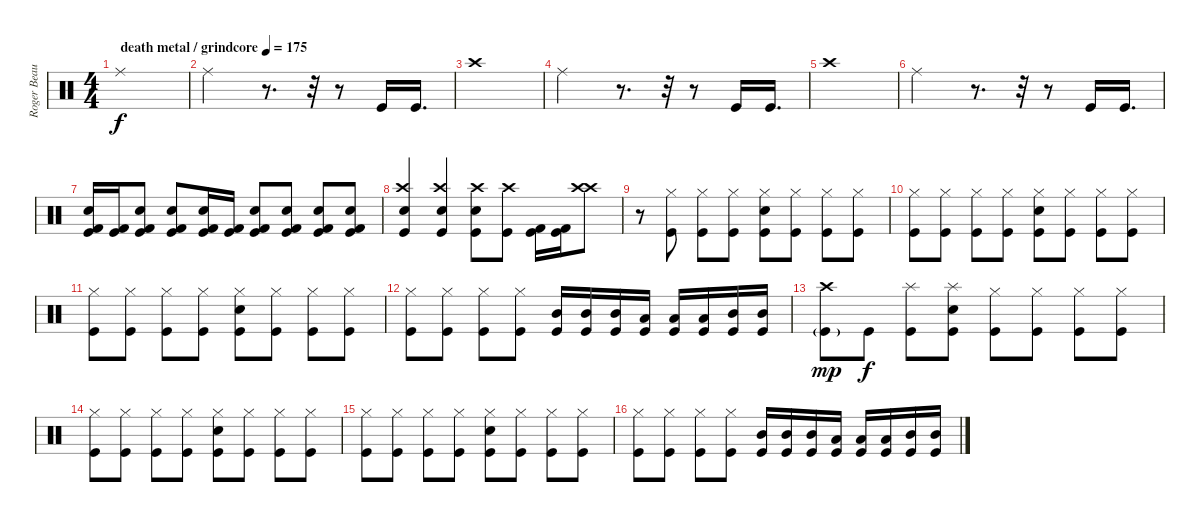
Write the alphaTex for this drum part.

\track ("Roger Beaujard - Drum Programming  Sam I" "Roger Beau") {instrument percussion}
\staff {score}
\articulation defaults
\ts (4 4)
\tempo (175 "death metal / grindcore")
\clef neutral
\ks c "Ride (middle)".1{dy f}
|
"Ride (middle)".2 r.8{d} r.32 r.8 "Kick (hit)".16 "Kick (hit)".16{d} |
"Crash high (hit)".1 |
"Ride (middle)".2 r.8{d} r.32 r.8 "Kick (hit)".16 "Kick (hit)".16{d} |
"Crash high (hit)".1 |
"Ride (middle)".2 r.8{d} r.32 r.8 "Kick (hit)".16 "Kick (hit)".16{d} |
("Electric Snare (hit)" "Kick (hit) 2" "Kick (hit)").16 ("Kick (hit) 2" "Kick (hit)").16 ("Electric Snare (hit)" "Kick (hit) 2" "Kick (hit)").8 ("Electric Snare (hit)" "Kick (hit) 2" "Kick (hit)").8 ("Electric Snare (hit)" "Kick (hit) 2" "Kick (hit)").16 ("Kick (hit) 2" "Kick (hit)").16 ("Electric Snare (hit)" "Kick (hit) 2" "Kick (hit)").8 ("Electric Snare (hit)" "Kick (hit) 2" "Kick (hit)").8 ("Electric Snare (hit)" "Kick (hit) 2" "Kick (hit)").8 ("Electric Snare (hit)" "Kick (hit) 2" "Kick (hit)").8 |
("Crash high (hit)" "Electric Snare (hit)" "Kick (hit)").4 ("Crash high (hit)" "Electric Snare (hit)" "Kick (hit)").4 ("Crash high (hit)" "Electric Snare (hit)" "Kick (hit)").8 ("Crash high (hit)" "Kick (hit)").8 ("Kick (hit) 2" "Kick (hit)").16 ("Kick (hit) 2" "Kick (hit)").16 ("Crash high (hit)" "Crash high (hit)").8 |
r.8 ("Hi-Hat (closed)" "Kick (hit)").8 ("Hi-Hat (closed)" "Kick (hit)").8 ("Hi-Hat (closed)" "Kick (hit)").8 ("Hi-Hat (closed)" "Electric Snare (hit)" "Kick (hit)").8 ("Hi-Hat (closed)" "Kick (hit)").8 ("Hi-Hat (closed)" "Kick (hit)").8 ("Hi-Hat (closed)" "Kick (hit)").8 |
("Hi-Hat (closed)" "Kick (hit)").8 ("Hi-Hat (closed)" "Kick (hit)").8 ("Hi-Hat (closed)" "Kick (hit)").8 ("Hi-Hat (closed)" "Kick (hit)").8 ("Hi-Hat (closed)" "Electric Snare (hit)" "Kick (hit)").8 ("Hi-Hat (closed)" "Kick (hit)").8 ("Hi-Hat (closed)" "Kick (hit)").8 ("Hi-Hat (closed)" "Kick (hit)").8 |
("Hi-Hat (closed)" "Kick (hit)").8 ("Hi-Hat (closed)" "Kick (hit)").8 ("Hi-Hat (closed)" "Kick (hit)").8 ("Hi-Hat (closed)" "Kick (hit)").8 ("Hi-Hat (closed)" "Electric Snare (hit)" "Kick (hit)").8 ("Hi-Hat (closed)" "Kick (hit)").8 ("Hi-Hat (closed)" "Kick (hit)").8 ("Hi-Hat (closed)" "Kick (hit)").8 |
("Hi-Hat (closed)" "Kick (hit)").8 ("Hi-Hat (closed)" "Kick (hit)").8 ("Hi-Hat (closed)" "Kick (hit)").8 ("Hi-Hat (closed)" "Kick (hit)").8 ("Mid Tom (hit)" "Kick (hit)").16 ("Mid Tom (hit)" "Kick (hit)").16 ("Mid Tom (hit)" "Kick (hit)").16 ("Low Tom (hit)" "Kick (hit)").16 ("Low Tom (hit)" "Kick (hit)").16 ("Low Tom (hit)" "Kick (hit)").16 ("Mid Tom (hit)" "Kick (hit)").16 ("Mid Tom (hit)" "Kick (hit)").16 |
("Crash high (hit)" "Kick (hit)"{g}).8{dy mp} "Kick (hit)".8{dy f} ("Splash (hit)" "Kick (hit)").8 ("Splash (hit)" "Electric Snare (hit)" "Kick (hit)").8 ("Hi-Hat (closed)" "Kick (hit)").8 ("Hi-Hat (closed)" "Kick (hit)").8 ("Hi-Hat (closed)" "Kick (hit)").8 ("Hi-Hat (closed)" "Kick (hit)").8 |
("Hi-Hat (closed)" "Kick (hit)").8 ("Hi-Hat (closed)" "Kick (hit)").8 ("Hi-Hat (closed)" "Kick (hit)").8 ("Hi-Hat (closed)" "Kick (hit)").8 ("Hi-Hat (closed)" "Electric Snare (hit)" "Kick (hit)").8 ("Hi-Hat (closed)" "Kick (hit)").8 ("Hi-Hat (closed)" "Kick (hit)").8 ("Hi-Hat (closed)" "Kick (hit)").8 |
("Hi-Hat (closed)" "Kick (hit)").8 ("Hi-Hat (closed)" "Kick (hit)").8 ("Hi-Hat (closed)" "Kick (hit)").8 ("Hi-Hat (closed)" "Kick (hit)").8 ("Hi-Hat (closed)" "Electric Snare (hit)" "Kick (hit)").8 ("Hi-Hat (closed)" "Kick (hit)").8 ("Hi-Hat (closed)" "Kick (hit)").8 ("Hi-Hat (closed)" "Kick (hit)").8 |
("Hi-Hat (closed)" "Kick (hit)").8 ("Hi-Hat (closed)" "Kick (hit)").8 ("Hi-Hat (closed)" "Kick (hit)").8 ("Hi-Hat (closed)" "Kick (hit)").8 ("Mid Tom (hit)" "Kick (hit)").16 ("Mid Tom (hit)" "Kick (hit)").16 ("Mid Tom (hit)" "Kick (hit)").16 ("Low Tom (hit)" "Kick (hit)").16 ("Low Tom (hit)" "Kick (hit)").16 ("Low Tom (hit)" "Kick (hit)").16 ("Mid Tom (hit)" "Kick (hit)").16 ("Mid Tom (hit)" "Kick (hit)").16
